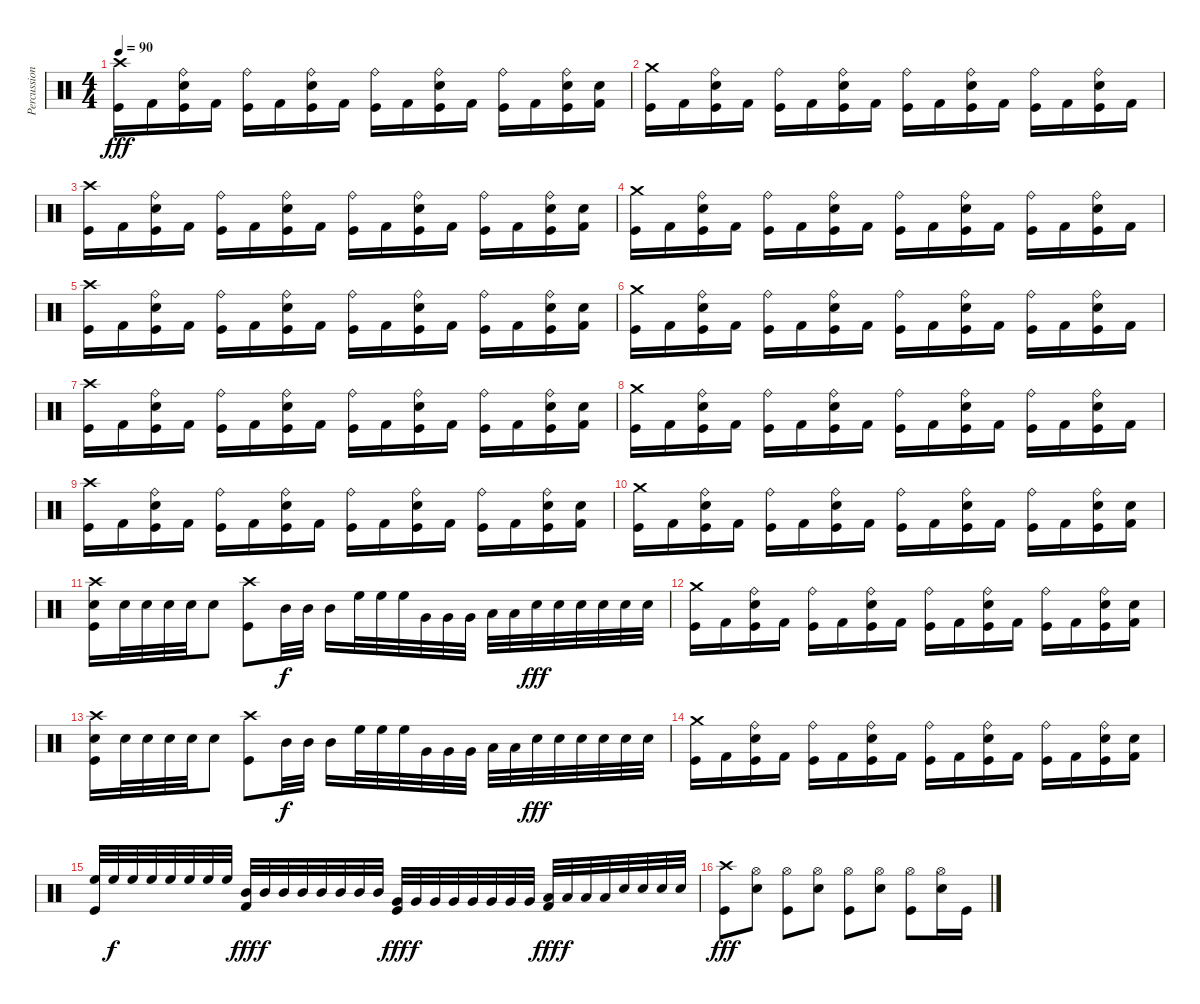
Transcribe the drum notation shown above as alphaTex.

\track ("Percussion" "Percussion") {instrument percussion}
\staff {score}
\articulation defaults
\ts (4 4)
\tempo 90
\clef neutral
\ks c
("Crash high (hit)" "Kick (hit)").16{dy fff} "Kick (hit) 2".16 ("Ride (bell)" "Electric Snare (hit)" "Kick (hit)").16 "Kick (hit) 2".16 ("Ride (bell)" "Kick (hit)").16 "Kick (hit) 2".16 ("Ride (bell)" "Electric Snare (hit)" "Kick (hit)").16 "Kick (hit) 2".16 ("Ride (bell)" "Kick (hit)").16 "Kick (hit) 2".16 ("Ride (bell)" "Electric Snare (hit)" "Kick (hit)").16 "Kick (hit) 2".16 ("Ride (bell)" "Kick (hit)").16 "Kick (hit) 2".16 ("Ride (bell)" "Electric Snare (hit)" "Kick (hit)").16 ("Electric Snare (hit)" "Kick (hit) 2").16 |
("Crash medium (hit)" "Kick (hit)").16 "Kick (hit) 2".16 ("Ride (bell)" "Electric Snare (hit)" "Kick (hit)").16 "Kick (hit) 2".16 ("Ride (bell)" "Kick (hit)").16 "Kick (hit) 2".16 ("Ride (bell)" "Electric Snare (hit)" "Kick (hit)").16 "Kick (hit) 2".16 ("Ride (bell)" "Kick (hit)").16 "Kick (hit) 2".16 ("Ride (bell)" "Electric Snare (hit)" "Kick (hit)").16 "Kick (hit) 2".16 ("Ride (bell)" "Kick (hit)").16 "Kick (hit) 2".16 ("Ride (bell)" "Electric Snare (hit)" "Kick (hit)").16 "Kick (hit) 2".16 |
("Crash high (hit)" "Kick (hit)").16 "Kick (hit) 2".16 ("Ride (bell)" "Electric Snare (hit)" "Kick (hit)").16 "Kick (hit) 2".16 ("Ride (bell)" "Kick (hit)").16 "Kick (hit) 2".16 ("Ride (bell)" "Electric Snare (hit)" "Kick (hit)").16 "Kick (hit) 2".16 ("Ride (bell)" "Kick (hit)").16 "Kick (hit) 2".16 ("Ride (bell)" "Electric Snare (hit)" "Kick (hit)").16 "Kick (hit) 2".16 ("Ride (bell)" "Kick (hit)").16 "Kick (hit) 2".16 ("Ride (bell)" "Electric Snare (hit)" "Kick (hit)").16 ("Electric Snare (hit)" "Kick (hit) 2").16 |
("Crash medium (hit)" "Kick (hit)").16 "Kick (hit) 2".16 ("Ride (bell)" "Electric Snare (hit)" "Kick (hit)").16 "Kick (hit) 2".16 ("Ride (bell)" "Kick (hit)").16 "Kick (hit) 2".16 ("Ride (bell)" "Electric Snare (hit)" "Kick (hit)").16 "Kick (hit) 2".16 ("Ride (bell)" "Kick (hit)").16 "Kick (hit) 2".16 ("Ride (bell)" "Electric Snare (hit)" "Kick (hit)").16 "Kick (hit) 2".16 ("Ride (bell)" "Kick (hit)").16 "Kick (hit) 2".16 ("Ride (bell)" "Electric Snare (hit)" "Kick (hit)").16 "Kick (hit) 2".16 |
("Crash high (hit)" "Kick (hit)").16 "Kick (hit) 2".16 ("Ride (bell)" "Electric Snare (hit)" "Kick (hit)").16 "Kick (hit) 2".16 ("Ride (bell)" "Kick (hit)").16 "Kick (hit) 2".16 ("Ride (bell)" "Electric Snare (hit)" "Kick (hit)").16 "Kick (hit) 2".16 ("Ride (bell)" "Kick (hit)").16 "Kick (hit) 2".16 ("Ride (bell)" "Electric Snare (hit)" "Kick (hit)").16 "Kick (hit) 2".16 ("Ride (bell)" "Kick (hit)").16 "Kick (hit) 2".16 ("Ride (bell)" "Electric Snare (hit)" "Kick (hit)").16 ("Electric Snare (hit)" "Kick (hit) 2").16 |
("Crash medium (hit)" "Kick (hit)").16 "Kick (hit) 2".16 ("Ride (bell)" "Electric Snare (hit)" "Kick (hit)").16 "Kick (hit) 2".16 ("Ride (bell)" "Kick (hit)").16 "Kick (hit) 2".16 ("Ride (bell)" "Electric Snare (hit)" "Kick (hit)").16 "Kick (hit) 2".16 ("Ride (bell)" "Kick (hit)").16 "Kick (hit) 2".16 ("Ride (bell)" "Electric Snare (hit)" "Kick (hit)").16 "Kick (hit) 2".16 ("Ride (bell)" "Kick (hit)").16 "Kick (hit) 2".16 ("Ride (bell)" "Electric Snare (hit)" "Kick (hit)").16 "Kick (hit) 2".16 |
("Crash high (hit)" "Kick (hit)").16 "Kick (hit) 2".16 ("Ride (bell)" "Electric Snare (hit)" "Kick (hit)").16 "Kick (hit) 2".16 ("Ride (bell)" "Kick (hit)").16 "Kick (hit) 2".16 ("Ride (bell)" "Electric Snare (hit)" "Kick (hit)").16 "Kick (hit) 2".16 ("Ride (bell)" "Kick (hit)").16 "Kick (hit) 2".16 ("Ride (bell)" "Electric Snare (hit)" "Kick (hit)").16 "Kick (hit) 2".16 ("Ride (bell)" "Kick (hit)").16 "Kick (hit) 2".16 ("Ride (bell)" "Electric Snare (hit)" "Kick (hit)").16 ("Electric Snare (hit)" "Kick (hit) 2").16 |
("Crash medium (hit)" "Kick (hit)").16 "Kick (hit) 2".16 ("Ride (bell)" "Electric Snare (hit)" "Kick (hit)").16 "Kick (hit) 2".16 ("Ride (bell)" "Kick (hit)").16 "Kick (hit) 2".16 ("Ride (bell)" "Electric Snare (hit)" "Kick (hit)").16 "Kick (hit) 2".16 ("Ride (bell)" "Kick (hit)").16 "Kick (hit) 2".16 ("Ride (bell)" "Electric Snare (hit)" "Kick (hit)").16 "Kick (hit) 2".16 ("Ride (bell)" "Kick (hit)").16 "Kick (hit) 2".16 ("Ride (bell)" "Electric Snare (hit)" "Kick (hit)").16 "Kick (hit) 2".16 |
("Crash high (hit)" "Kick (hit)").16 "Kick (hit) 2".16 ("Ride (bell)" "Electric Snare (hit)" "Kick (hit)").16 "Kick (hit) 2".16 ("Ride (bell)" "Kick (hit)").16 "Kick (hit) 2".16 ("Ride (bell)" "Electric Snare (hit)" "Kick (hit)").16 "Kick (hit) 2".16 ("Ride (bell)" "Kick (hit)").16 "Kick (hit) 2".16 ("Ride (bell)" "Electric Snare (hit)" "Kick (hit)").16 "Kick (hit) 2".16 ("Ride (bell)" "Kick (hit)").16 "Kick (hit) 2".16 ("Ride (bell)" "Electric Snare (hit)" "Kick (hit)").16 ("Electric Snare (hit)" "Kick (hit) 2").16 |
("Crash medium (hit)" "Kick (hit)").16 "Kick (hit) 2".16 ("Ride (bell)" "Electric Snare (hit)" "Kick (hit)").16 "Kick (hit) 2".16 ("Ride (bell)" "Kick (hit)").16 "Kick (hit) 2".16 ("Ride (bell)" "Electric Snare (hit)" "Kick (hit)").16 "Kick (hit) 2".16 ("Ride (bell)" "Kick (hit)").16 "Kick (hit) 2".16 ("Ride (bell)" "Electric Snare (hit)" "Kick (hit)").16 "Kick (hit) 2".16 ("Ride (bell)" "Kick (hit)").16 "Kick (hit) 2".16 ("Ride (bell)" "Electric Snare (hit)" "Kick (hit)").16 ("Electric Snare (hit)" "Kick (hit) 2").16 |
("Crash high (hit)" "Electric Snare (hit)" "Kick (hit)").16 "Electric Snare (hit)".32 "Electric Snare (hit)".32 "Electric Snare (hit)".32 "Electric Snare (hit)".32 "Electric Snare (hit)".8 ("Crash high (hit)" "Kick (hit)").8 "Mid Tom (hit)".32{dy f} "Mid Tom (hit)".32 "Mid Tom (hit)".16 "High Floor Tom (hit)".32 "High Floor Tom (hit)".32 "High Floor Tom (hit)".32 "Very Low Tom (hit)".32 "Very Low Tom (hit)".32 "Very Low Tom (hit)".32 "Low Floor Tom (hit)".32 "Low Floor Tom (hit)".32 "Electric Snare (hit)".32{dy fff} "Electric Snare (hit)".32 "Electric Snare (hit)".32 "Electric Snare (hit)".32 "Electric Snare (hit)".32 "Electric Snare (hit)".32 |
("Crash medium (hit)" "Kick (hit)").16 "Kick (hit) 2".16 ("Ride (bell)" "Electric Snare (hit)" "Kick (hit)").16 "Kick (hit) 2".16 ("Ride (bell)" "Kick (hit)").16 "Kick (hit) 2".16 ("Ride (bell)" "Electric Snare (hit)" "Kick (hit)").16 "Kick (hit) 2".16 ("Ride (bell)" "Kick (hit)").16 "Kick (hit) 2".16 ("Ride (bell)" "Electric Snare (hit)" "Kick (hit)").16 "Kick (hit) 2".16 ("Ride (bell)" "Kick (hit)").16 "Kick (hit) 2".16 ("Ride (bell)" "Electric Snare (hit)" "Kick (hit)").16 ("Electric Snare (hit)" "Kick (hit) 2").16 |
("Crash high (hit)" "Electric Snare (hit)" "Kick (hit)").16 "Electric Snare (hit)".32 "Electric Snare (hit)".32 "Electric Snare (hit)".32 "Electric Snare (hit)".32 "Electric Snare (hit)".8 ("Crash high (hit)" "Kick (hit)").8 "Mid Tom (hit)".32{dy f} "Mid Tom (hit)".32 "Mid Tom (hit)".16 "High Floor Tom (hit)".32 "High Floor Tom (hit)".32 "High Floor Tom (hit)".32 "Very Low Tom (hit)".32 "Very Low Tom (hit)".32 "Very Low Tom (hit)".32 "Low Floor Tom (hit)".32 "Low Floor Tom (hit)".32 "Electric Snare (hit)".32{dy fff} "Electric Snare (hit)".32 "Electric Snare (hit)".32 "Electric Snare (hit)".32 "Electric Snare (hit)".32 "Electric Snare (hit)".32 |
("Crash medium (hit)" "Kick (hit)").16 "Kick (hit) 2".16 ("Ride (bell)" "Electric Snare (hit)" "Kick (hit)").16 "Kick (hit) 2".16 ("Ride (bell)" "Kick (hit)").16 "Kick (hit) 2".16 ("Ride (bell)" "Electric Snare (hit)" "Kick (hit)").16 "Kick (hit) 2".16 ("Ride (bell)" "Kick (hit)").16 "Kick (hit) 2".16 ("Ride (bell)" "Electric Snare (hit)" "Kick (hit)").16 "Kick (hit) 2".16 ("Ride (bell)" "Kick (hit)").16 "Kick (hit) 2".16 ("Ride (bell)" "Electric Snare (hit)" "Kick (hit)").16 ("Electric Snare (hit)" "Kick (hit) 2").16 |
("High Floor Tom (hit)" "Kick (hit)").32 "High Floor Tom (hit)".32{dy f} "High Floor Tom (hit)".32 "High Floor Tom (hit)".32 "High Floor Tom (hit)".32 "High Floor Tom (hit)".32 "High Floor Tom (hit)".32 "High Floor Tom (hit)".32 ("Mid Tom (hit)" "Kick (hit) 2").32{dy fff} "Mid Tom (hit)".32{dy f} "Mid Tom (hit)".32 "Mid Tom (hit)".32 "Mid Tom (hit)".32 "Mid Tom (hit)".32 "Mid Tom (hit)".32 "Mid Tom (hit)".32 ("Very Low Tom (hit)" "Kick (hit)").32{dy fff} "Very Low Tom (hit)".32{dy f} "Very Low Tom (hit)".32 "Very Low Tom (hit)".32 "Very Low Tom (hit)".32 "Very Low Tom (hit)".32 "Very Low Tom (hit)".32 "Very Low Tom (hit)".32 ("Low Floor Tom (hit)" "Kick (hit) 2").32{dy fff} "Low Floor Tom (hit)".32{dy f} "Low Floor Tom (hit)".32 "Low Floor Tom (hit)".32 "Electric Snare (hit)".32 "Electric Snare (hit)".32 "Electric Snare (hit)".32 "Electric Snare (hit)".32 |
("Crash high (hit)" "Kick (hit)").8{dy fff} ("Hi-Hat (open)" "Electric Snare (hit)").8 ("Hi-Hat (open)" "Kick (hit)").8 ("Hi-Hat (open)" "Electric Snare (hit)").8 ("Hi-Hat (open)" "Kick (hit)").8 ("Hi-Hat (open)" "Electric Snare (hit)").8 ("Hi-Hat (open)" "Kick (hit)").8 ("Hi-Hat (open)" "Electric Snare (hit)").16 "Kick (hit)".16
